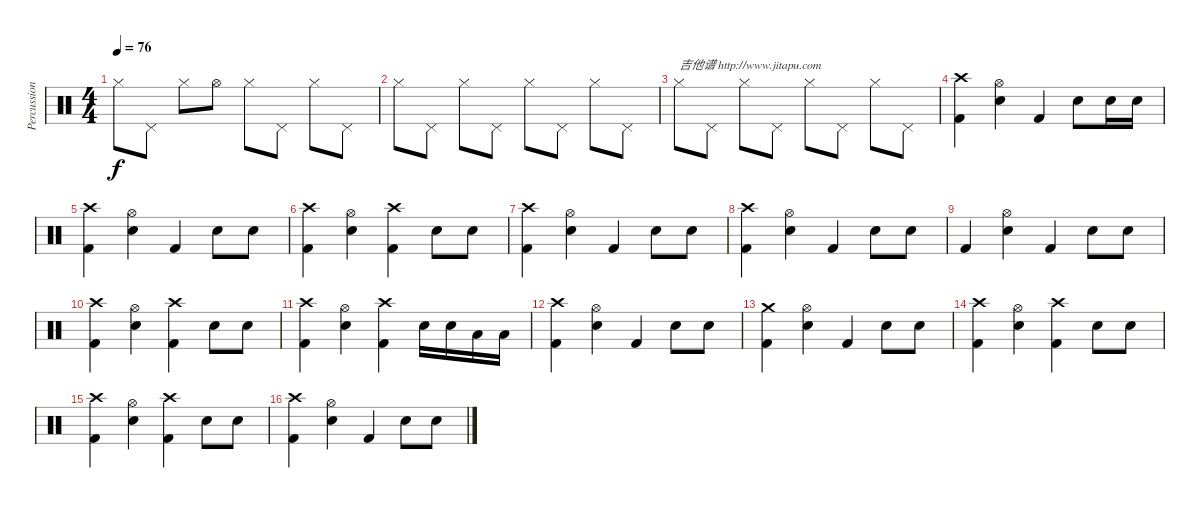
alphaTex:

\track ("Percussion" "Percussion") {instrument percussion}
\staff {score}
\articulation defaults
\ts (4 4)
\tempo 76
\clef neutral
\ks c "Hi-Hat (closed)".8{dy f} "Pedal Hi-Hat (hit)".8 "Hi-Hat (closed)".8 "Hi-Hat (open)".8 "Hi-Hat (closed)".8 "Pedal Hi-Hat (hit)".8 "Hi-Hat (closed)".8 "Pedal Hi-Hat (hit)".8
|
"Hi-Hat (closed)".8 "Pedal Hi-Hat (hit)".8 "Hi-Hat (closed)".8 "Pedal Hi-Hat (hit)".8 "Hi-Hat (closed)".8 "Pedal Hi-Hat (hit)".8 "Hi-Hat (closed)".8 "Pedal Hi-Hat (hit)".8 |
"Hi-Hat (closed)".8{txt "吉他谱 http://www.jitapu.com"} "Pedal Hi-Hat (hit)".8 "Hi-Hat (closed)".8 "Pedal Hi-Hat (hit)".8 "Hi-Hat (closed)".8 "Pedal Hi-Hat (hit)".8 "Hi-Hat (closed)".8 "Pedal Hi-Hat (hit)".8 |
("Crash high (hit)" "Kick (hit) 2").4 ("Hi-Hat (open)" "Electric Snare (hit)").4 "Kick (hit) 2".4 "Electric Snare (hit)".8 "Electric Snare (hit)".16 "Electric Snare (hit)".16 |
("Crash high (hit)" "Kick (hit) 2").4 ("Hi-Hat (open)" "Electric Snare (hit)").4 "Kick (hit) 2".4 "Electric Snare (hit)".8 "Electric Snare (hit)".8 |
("Crash high (hit)" "Kick (hit) 2").4 ("Hi-Hat (open)" "Electric Snare (hit)").4 ("Crash high (hit)" "Kick (hit) 2").4 "Electric Snare (hit)".8 "Electric Snare (hit)".8 |
("Crash high (hit)" "Kick (hit) 2").4 ("Hi-Hat (open)" "Electric Snare (hit)").4 "Kick (hit) 2".4 "Electric Snare (hit)".8 "Electric Snare (hit)".8 |
("Crash high (hit)" "Kick (hit) 2").4 ("Hi-Hat (open)" "Electric Snare (hit)").4 "Kick (hit) 2".4 "Electric Snare (hit)".8 "Electric Snare (hit)".8 |
"Kick (hit) 2".4 ("Hi-Hat (open)" "Electric Snare (hit)").4 "Kick (hit) 2".4 "Electric Snare (hit)".8 "Electric Snare (hit)".8 |
("Crash high (hit)" "Kick (hit) 2").4 ("Hi-Hat (open)" "Electric Snare (hit)").4 ("Crash high (hit)" "Kick (hit) 2").4 "Electric Snare (hit)".8 "Electric Snare (hit)".8 |
("Crash high (hit)" "Kick (hit) 2").4 ("Hi-Hat (open)" "Electric Snare (hit)").4 ("Crash high (hit)" "Kick (hit) 2").4 "Electric Snare (hit)".16 "Electric Snare (hit)".16 "Low Tom (hit)".16 "Low Tom (hit)".16 |
("Crash high (hit)" "Kick (hit) 2").4 ("Hi-Hat (open)" "Electric Snare (hit)").4 "Kick (hit) 2".4 "Electric Snare (hit)".8 "Electric Snare (hit)".8 |
("Crash medium (hit)" "Kick (hit) 2").4 ("Hi-Hat (open)" "Electric Snare (hit)").4 "Kick (hit) 2".4 "Electric Snare (hit)".8 "Electric Snare (hit)".8 |
("Crash high (hit)" "Kick (hit) 2").4 ("Hi-Hat (open)" "Electric Snare (hit)").4 ("Crash high (hit)" "Kick (hit) 2").4 "Electric Snare (hit)".8 "Electric Snare (hit)".8 |
("Crash high (hit)" "Kick (hit) 2").4 ("Hi-Hat (open)" "Electric Snare (hit)").4 ("Crash high (hit)" "Kick (hit) 2").4 "Electric Snare (hit)".8 "Electric Snare (hit)".8 |
("Crash high (hit)" "Kick (hit) 2").4 ("Hi-Hat (open)" "Electric Snare (hit)").4 "Kick (hit) 2".4 "Electric Snare (hit)".8 "Electric Snare (hit)".8
